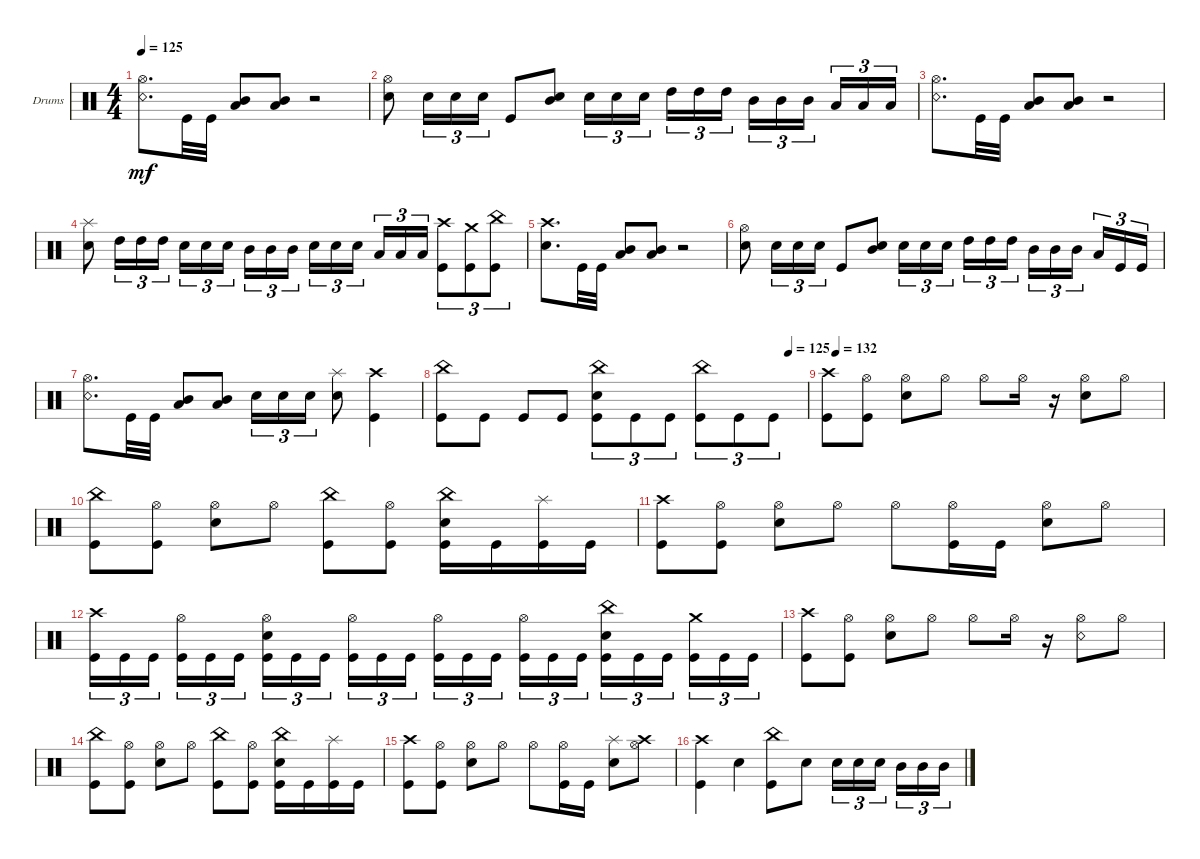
\defaultSystemsLayout 4
\bracketExtendMode groupsimilarinstruments
\firstSystemTrackNameOrientation horizontal
\otherSystemsTrackNameOrientation horizontal
\track ("Drumkit" "Drums") {instrument percussion}
\staff {score}
\articulation defaults
\ts (4 4)
\tempo 125
\clef neutral
\scale
0.474178
\ks c
("Snare (rim shot)" "Hi-Hat (open)").8{d dy mf} "Kick (hit)".32 "Kick (hit)".32 ("Mid Tom (hit)" "Low Tom (hit)").8 ("Mid Tom (hit)" "Low Tom (hit)").8 r.2 |
\scale
0.262911 ("Snare (hit) 2" "Hi-Hat (open)").8 "Snare (hit) 2".16{tu (3 2)} "Snare (hit) 2".16{tu (3 2)} "Snare (hit) 2".16{tu (3 2)} "Kick (hit)".8 ("Snare (hit) 2" "Mid Tom (hit)").8 "Snare (hit) 2".16{tu (3 2)} "Snare (hit) 2".16{tu (3 2)} "Snare (hit) 2".16{tu (3 2)} "High Tom (hit)".16{tu (3 2)} "High Tom (hit)".16{tu (3 2)} "High Tom (hit)".16{tu (3 2)} "Mid Tom (hit)".16{tu (3 2)} "Mid Tom (hit)".16{tu (3 2)} "Mid Tom (hit)".16{tu (3 2)} "Low Tom (hit)".16{tu (3 2)} "Low Tom (hit)".16{tu (3 2)} "Low Tom (hit)".16{tu (3 2)} |
\scale
0.262911 ("Snare (rim shot)" "Hi-Hat (open)").8{d} "Kick (hit)".32 "Kick (hit)".32 ("Mid Tom (hit)" "Low Tom (hit)").8 ("Mid Tom (hit)" "Low Tom (hit)").8 r.2 |
\scale
0.333333 ("Snare (hit) 2" "Splash (hit)").8 "High Tom (hit)".16{tu (3 2)} "High Tom (hit)".16{tu (3 2)} "High Tom (hit)".16{tu (3 2)} "Snare (hit) 2".16{tu (3 2)} "Snare (hit) 2".16{tu (3 2)} "Snare (hit) 2".16{tu (3 2)} "Mid Tom (hit)".16{tu (3 2)} "Mid Tom (hit)".16{tu (3 2)} "Mid Tom (hit)".16{tu (3 2)} "Snare (hit) 2".16{tu (3 2)} "Snare (hit) 2".16{tu (3 2)} "Snare (hit) 2".16{tu (3 2)} "Low Tom (hit)".16{tu (3 2)} "Low Tom (hit)".16{tu (3 2)} "Low Tom (hit)".16{tu (3 2)} ("Kick (hit)" "Crash high (hit)").8{tu (3 2)} ("Kick (hit)" "Crash medium (hit)").8{tu (3 2)} ("Kick (hit)" "China (hit)").8{tu (3 2)} |
\scale
0.333333 ("Crash high (hit)" "Snare (hit) 2").8{d} "Kick (hit)".32 "Kick (hit)".32 ("Mid Tom (hit)" "Low Tom (hit)").8 ("Mid Tom (hit)" "Low Tom (hit)").8 r.2 |
\scale
0.333333 ("Snare (hit) 2" "Hi-Hat (open)").8 "Snare (hit) 2".16{tu (3 2)} "Snare (hit) 2".16{tu (3 2)} "Snare (hit) 2".16{tu (3 2)} "Kick (hit)".8 ("Snare (hit) 2" "Mid Tom (hit)").8 "Snare (hit) 2".16{tu (3 2)} "Snare (hit) 2".16{tu (3 2)} "Snare (hit) 2".16{tu (3 2)} "High Tom (hit)".16{tu (3 2)} "High Tom (hit)".16{tu (3 2)} "High Tom (hit)".16{tu (3 2)} "Mid Tom (hit)".16{tu (3 2)} "Mid Tom (hit)".16{tu (3 2)} "Mid Tom (hit)".16{tu (3 2)} "Low Tom (hit)".16{tu (3 2)} "Kick (hit)".16{tu (3 2)} "Kick (hit)".16{tu (3 2)} |
\scale
0.333333 ("Snare (rim shot)" "Hi-Hat (open)").8{d} "Kick (hit)".32 "Kick (hit)".32 ("Mid Tom (hit)" "Low Tom (hit)").8 ("Mid Tom (hit)" "Low Tom (hit)").8 "Snare (hit) 2".16{tu (3 2)} "Snare (hit) 2".16{tu (3 2)} "Snare (hit) 2".16{tu (3 2)} ("Splash (hit)" "Snare (hit) 2").8 ("Crash high (hit)" "Kick (hit)").4 |
\tempo (125 0.95)
\scale
0.333333 ("Kick (hit)" "China (hit)").8 "Kick (hit)".8 "Kick (hit)".8 "Kick (hit)".8 ("Kick (hit)" "Snare (hit) 2" "China (hit)").8{tu (3 2)} "Kick (hit)".8{tu (3 2)} "Kick (hit)".8{tu (3 2)} ("Kick (hit)" "China (hit)").8{tu (3 2)} "Kick (hit)".8{tu (3 2)} "Kick (hit)".8{tu (3 2)} |
\tempo (132 0.025)
\scale
0.333333 ("Kick (hit)" "Crash high (hit)").8 ("Hi-Hat (open)" "Kick (hit)").8 ("Hi-Hat (open)" "Snare (hit) 2").8 "Hi-Hat (open)".8 "Hi-Hat (open)".8 "Hi-Hat (open)".16 r.16 ("Hi-Hat (open)" "Snare (hit) 2").8 "Hi-Hat (open)".8 |
\scale
0.333333 ("Kick (hit)" "China (hit)").8 ("Hi-Hat (open)" "Kick (hit)").8 ("Hi-Hat (open)" "Snare (hit) 2").8 "Hi-Hat (open)".8 ("Kick (hit)" "China (hit)").8 ("Hi-Hat (open)" "Kick (hit)").8 ("Kick (hit)" "Snare (hit) 2" "China (hit)").16 "Kick (hit)".16 ("Kick (hit)" "Splash (hit)").16 "Kick (hit)".16 |
\scale
0.333333 ("Kick (hit)" "Crash high (hit)").8 ("Hi-Hat (open)" "Kick (hit)").8 ("Hi-Hat (open)" "Snare (hit) 2").8 "Hi-Hat (open)".8 "Hi-Hat (open)".8 ("Hi-Hat (open)" "Kick (hit)").16 "Kick (hit)".16 ("Hi-Hat (open)" "Snare (hit) 2").8 "Hi-Hat (open)".8 |
\scale
0.333333 ("Kick (hit)" "Crash high (hit)").16{tu (3 2)} "Kick (hit)".16{tu (3 2)} "Kick (hit)".16{tu (3 2)} ("Kick (hit)" "Hi-Hat (open)").16{tu (3 2)} "Kick (hit)".16{tu (3 2)} "Kick (hit)".16{tu (3 2)} ("Kick (hit)" "Snare (hit) 2" "Hi-Hat (open)").16{tu (3 2)} "Kick (hit)".16{tu (3 2)} "Kick (hit)".16{tu (3 2)} ("Kick (hit)" "Hi-Hat (open)").16{tu (3 2)} "Kick (hit)".16{tu (3 2)} "Kick (hit)".16{tu (3 2)} ("Kick (hit)" "Hi-Hat (open)").16{tu (3 2)} "Kick (hit)".16{tu (3 2)} "Kick (hit)".16{tu (3 2)} ("Kick (hit)" "Hi-Hat (open)").16{tu (3 2)} "Kick (hit)".16{tu (3 2)} "Kick (hit)".16{tu (3 2)} ("Kick (hit)" "Snare (hit) 2" "China (hit)").16{tu (3 2)} "Kick (hit)".16{tu (3 2)} "Kick (hit)".16{tu (3 2)} ("Kick (hit)" "Crash medium (hit)").16{tu (3 2)} "Kick (hit)".16{tu (3 2)} "Kick (hit)".16{tu (3 2)} |
\scale
0.333333 ("Kick (hit)" "Crash high (hit)").8 ("Hi-Hat (open)" "Kick (hit)").8 ("Hi-Hat (open)" "Snare (hit) 2").8 "Hi-Hat (open)".8 "Hi-Hat (open)".8 "Hi-Hat (open)".16 r.16 ("Hi-Hat (open)" "Snare (rim shot)").8 "Hi-Hat (open)".8 |
\scale
0.333333 ("Kick (hit)" "China (hit)").8 ("Hi-Hat (open)" "Kick (hit)").8 ("Hi-Hat (open)" "Snare (hit) 2").8 "Hi-Hat (open)".8 ("Kick (hit)" "China (hit)").8 ("Hi-Hat (open)" "Kick (hit)").8 ("Kick (hit)" "Snare (hit) 2" "China (hit)").16 "Kick (hit)".16 ("Kick (hit)" "Splash (hit)").16 "Kick (hit)".16 |
\scale
0.333333 ("Kick (hit)" "Crash high (hit)").8 ("Hi-Hat (open)" "Kick (hit)").8 ("Hi-Hat (open)" "Snare (hit) 2").8 "Hi-Hat (open)".8 "Hi-Hat (open)".8 ("Hi-Hat (open)" "Kick (hit)").16 "Kick (hit)".16 ("Snare (hit) 2" "Splash (hit)").8 ("Hi-Hat (open)" "Crash high (hit)").8 |
\scale
0.333333 ("Kick (hit)" "Crash high (hit)").4 "Snare (hit) 2".4 ("Kick (hit)" "China (hit)").8 "Snare (hit) 2".8 "Snare (hit) 2".16{tu (3 2)} "Snare (hit) 2".16{tu (3 2)} "Snare (hit) 2".16{tu (3 2)} "Mid Tom (hit)".16{tu (3 2)} "Mid Tom (hit)".16{tu (3 2)} "Mid Tom (hit)".16{tu (3 2)}
